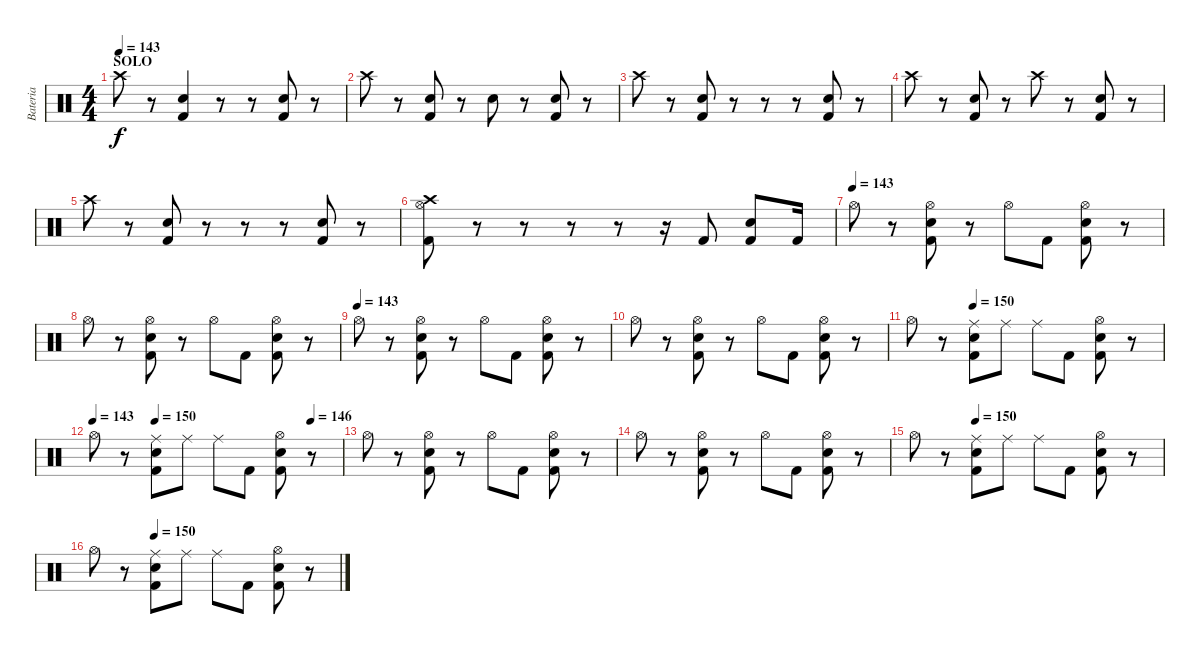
\track ("Bateria" "Bateria") {instrument percussion}
\staff {score}
\articulation defaults
\ts (4 4)
\section ("" "SOLO")
\tempo 143
\clef neutral
\ks c "Crash high (hit)".8{dy f volume 16}
r.8 ("Electric Snare (hit)" "Kick (hit) 2").4 r.8 r.8 ("Electric Snare (hit)" "Kick (hit) 2").8 r.8 |
"Crash high (hit)".8 r.8 ("Electric Snare (hit)" "Kick (hit) 2").8 r.8 "Snare (hit)"{x}.8 r.8 ("Electric Snare (hit)" "Kick (hit) 2").8 r.8 |
"Crash high (hit)".8 r.8 ("Electric Snare (hit)" "Kick (hit) 2").8 r.8 r.8 r.8 ("Electric Snare (hit)" "Kick (hit) 2").8 r.8 |
"Crash high (hit)".8 r.8 ("Electric Snare (hit)" "Kick (hit) 2").8 r.8 "Crash high (hit)".8 r.8 ("Electric Snare (hit)" "Kick (hit) 2").8 r.8 |
"Crash high (hit)".8 r.8 ("Electric Snare (hit)" "Kick (hit) 2").8 r.8 r.8 r.8 ("Electric Snare (hit)" "Kick (hit) 2").8 r.8 |
("Crash high (hit)" "Hi-Hat (open)" "Kick (hit) 2").8 r.8 r.8 r.8 r.8 r.16 "Kick (hit) 2".8 ("Electric Snare (hit)" "Kick (hit) 2").8 "Kick (hit) 2".16 |
\tempo 146
\tempo (143)
"Hi-Hat (open)".8 r.8 ("Hi-Hat (open)" "Electric Snare (hit)" "Kick (hit) 2").8 r.8 "Hi-Hat (open)".8 "Kick (hit) 2".8 ("Hi-Hat (open)" "Electric Snare (hit)" "Kick (hit) 2").8 r.8 |
"Hi-Hat (open)".8 r.8 ("Hi-Hat (open)" "Electric Snare (hit)" "Kick (hit) 2").8 r.8 "Hi-Hat (open)".8 "Kick (hit) 2".8 ("Hi-Hat (open)" "Electric Snare (hit)" "Kick (hit) 2").8 r.8 |
\tempo (143)
"Hi-Hat (open)".8 r.8 ("Hi-Hat (open)" "Electric Snare (hit)" "Kick (hit) 2").8 r.8 "Hi-Hat (open)".8 "Kick (hit) 2".8 ("Hi-Hat (open)" "Electric Snare (hit)" "Kick (hit) 2").8 r.8 |
"Hi-Hat (open)".8 r.8 ("Hi-Hat (open)" "Electric Snare (hit)" "Kick (hit) 2").8 r.8 "Hi-Hat (open)".8 "Kick (hit) 2".8 ("Hi-Hat (open)" "Electric Snare (hit)" "Kick (hit) 2").8 r.8 |
\tempo (150 0.25)
"Hi-Hat (open)".8 r.8 ("Ride (middle)" "Electric Snare (hit)" "Kick (hit) 2").8 "Ride (middle)".8 "Ride (middle)".8 "Kick (hit) 2".8 ("Hi-Hat (open)" "Electric Snare (hit)" "Kick (hit) 2").8 r.8 |
\tempo 143
\tempo (150 0.25)
\tempo (146 0.875)
"Hi-Hat (open)".8 r.8 ("Ride (middle)" "Electric Snare (hit)" "Kick (hit) 2").8 "Ride (middle)".8 "Ride (middle)".8 "Kick (hit) 2".8 ("Hi-Hat (open)" "Electric Snare (hit)" "Kick (hit) 2").8 r.8 |
"Hi-Hat (open)".8 r.8 ("Hi-Hat (open)" "Electric Snare (hit)" "Kick (hit) 2").8 r.8 "Hi-Hat (open)".8 "Kick (hit) 2".8 ("Hi-Hat (open)" "Electric Snare (hit)" "Kick (hit) 2").8 r.8 |
"Hi-Hat (open)".8 r.8 ("Hi-Hat (open)" "Electric Snare (hit)" "Kick (hit) 2").8 r.8 "Hi-Hat (open)".8 "Kick (hit) 2".8 ("Hi-Hat (open)" "Electric Snare (hit)" "Kick (hit) 2").8 r.8 |
\tempo (150 0.25)
"Hi-Hat (open)".8 r.8 ("Ride (middle)" "Electric Snare (hit)" "Kick (hit) 2").8 "Ride (middle)".8 "Ride (middle)".8 "Kick (hit) 2".8 ("Hi-Hat (open)" "Electric Snare (hit)" "Kick (hit) 2").8 r.8 |
\tempo (150 0.25)
"Hi-Hat (open)".8 r.8 ("Ride (middle)" "Electric Snare (hit)" "Kick (hit) 2").8 "Ride (middle)".8 "Ride (middle)".8 "Kick (hit) 2".8 ("Hi-Hat (open)" "Electric Snare (hit)" "Kick (hit) 2").8 r.8
